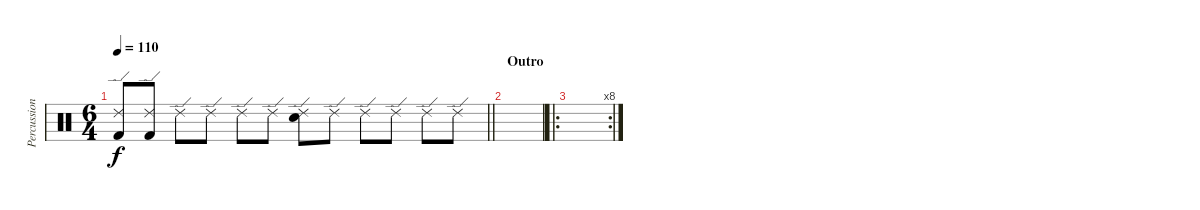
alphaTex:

\track ("Percussion" "Percussion") {instrument percussion}
\staff {score}
\articulation defaults
\ts (6 4)
\tempo 110
\clef neutral
\barLineRight lightlight
\ks c
("Ride (edge) 2" "Kick (hit) 2").8{dy f} ("Ride (edge) 2" "Kick (hit) 2").8 "Ride (edge) 2".8 "Ride (edge) 2".8 "Ride (edge) 2".8 "Ride (edge) 2".8 ("Ride (edge) 2" "Electric Snare (hit)").8 "Ride (edge) 2".8 "Ride (edge) 2".8 "Ride (edge) 2".8 "Ride (edge) 2".8 "Ride (edge) 2".8 |
\section ("" "Outro")
|
\ro
\rc 8
